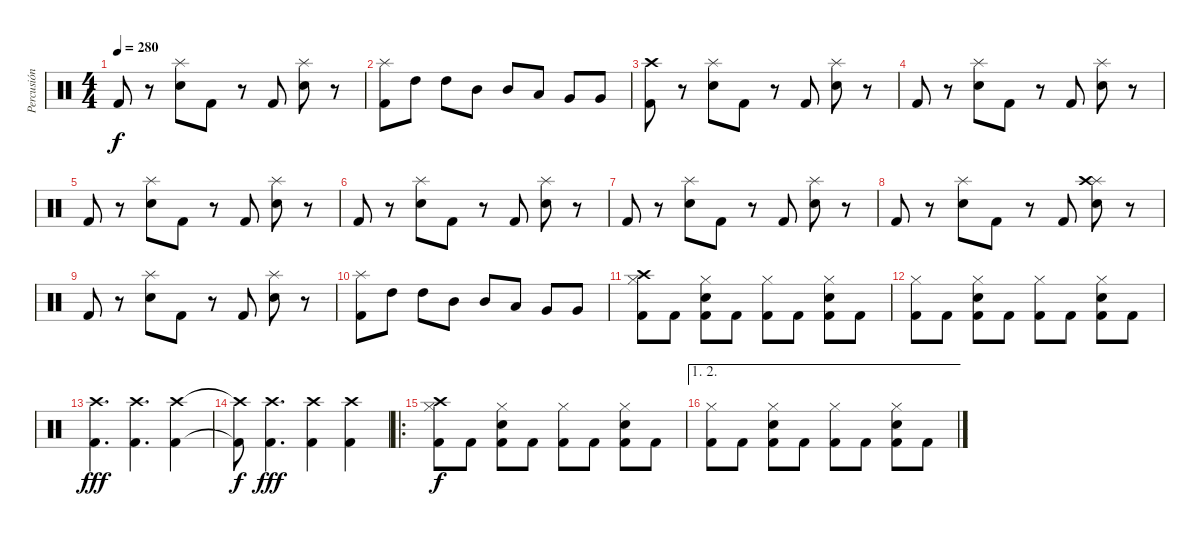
\track ("Percusión" "Percusión") {instrument percussion}
\staff {score}
\articulation defaults
\ts (4 4)
\tempo 280
\clef neutral
\ks c "Kick (hit) 2".8{dy f}
r.8 ("Snare (hit) 2" "Splash (hit)").8 "Kick (hit) 2".8 r.8 "Kick (hit) 2".8 ("Snare (hit) 2" "Splash (hit)").8 r.8 |
("Splash (hit)" "Kick (hit) 2").8 "High Tom (hit)".8 "High Tom (hit)".8 "Mid Tom (hit)".8 "Mid Tom (hit)".8 "Low Tom (hit)".8 "Very Low Tom (hit)".8 "Very Low Tom (hit)".8 |
("Crash high (hit)" "Kick (hit) 2").8 r.8 ("Snare (hit) 2" "Splash (hit)").8 "Kick (hit) 2".8 r.8 "Kick (hit) 2".8 ("Snare (hit) 2" "Splash (hit)").8 r.8 |
"Kick (hit) 2".8 r.8 ("Snare (hit) 2" "Splash (hit)").8 "Kick (hit) 2".8 r.8 "Kick (hit) 2".8 ("Snare (hit) 2" "Splash (hit)").8 r.8 |
"Kick (hit) 2".8 r.8 ("Snare (hit) 2" "Splash (hit)").8 "Kick (hit) 2".8 r.8 "Kick (hit) 2".8 ("Snare (hit) 2" "Splash (hit)").8 r.8 |
"Kick (hit) 2".8 r.8 ("Snare (hit) 2" "Splash (hit)").8 "Kick (hit) 2".8 r.8 "Kick (hit) 2".8 ("Snare (hit) 2" "Splash (hit)").8 r.8 |
"Kick (hit) 2".8 r.8 ("Snare (hit) 2" "Splash (hit)").8 "Kick (hit) 2".8 r.8 "Kick (hit) 2".8 ("Snare (hit) 2" "Splash (hit)").8 r.8 |
"Kick (hit) 2".8 r.8 ("Snare (hit) 2" "Splash (hit)").8 "Kick (hit) 2".8 r.8 "Kick (hit) 2".8 ("Snare (hit) 2" "Splash (hit)" "Crash high (hit)").8 r.8 |
"Kick (hit) 2".8 r.8 ("Snare (hit) 2" "Splash (hit)").8 "Kick (hit) 2".8 r.8 "Kick (hit) 2".8 ("Snare (hit) 2" "Splash (hit)").8 r.8 |
("Splash (hit)" "Kick (hit) 2").8 "High Tom (hit)".8 "High Tom (hit)".8 "Mid Tom (hit)".8 "Mid Tom (hit)".8 "Low Tom (hit)".8 "Very Low Tom (hit)".8 "Very Low Tom (hit)".8 |
("Crash high (hit)" "Hi-Hat (closed)" "Kick (hit) 2").8 "Kick (hit) 2".8 ("Snare (hit) 2" "Hi-Hat (closed)" "Kick (hit) 2").8 "Kick (hit) 2".8 ("Hi-Hat (closed)" "Kick (hit) 2").8 "Kick (hit) 2".8 ("Snare (hit) 2" "Hi-Hat (closed)" "Kick (hit) 2").8 "Kick (hit) 2".8 |
("Hi-Hat (closed)" "Kick (hit) 2").8 "Kick (hit) 2".8 ("Snare (hit) 2" "Hi-Hat (closed)" "Kick (hit) 2").8 "Kick (hit) 2".8 ("Hi-Hat (closed)" "Kick (hit) 2").8 "Kick (hit) 2".8 ("Snare (hit) 2" "Hi-Hat (closed)" "Kick (hit) 2").8 "Kick (hit) 2".8 |
("Crash high (hit)" "Kick (hit) 2").4{d dy fff} ("Crash high (hit)" "Kick (hit) 2").4{d} ("Crash high (hit)" "Kick (hit) 2").4 |
("Crash high (hit)"{t} "Kick (hit) 2"{t}).8{dy f} ("Crash high (hit)" "Kick (hit) 2").4{d dy fff} ("Crash high (hit)" "Kick (hit) 2").4 ("Crash high (hit)" "Kick (hit) 2").4 |
\ro
("Crash high (hit)" "Hi-Hat (closed)" "Kick (hit) 2").8{dy f} "Kick (hit) 2".8 ("Snare (hit) 2" "Hi-Hat (closed)" "Kick (hit) 2").8 "Kick (hit) 2".8 ("Hi-Hat (closed)" "Kick (hit) 2").8 "Kick (hit) 2".8 ("Snare (hit) 2" "Hi-Hat (closed)" "Kick (hit) 2").8 "Kick (hit) 2".8 |
\ae (1 2)
("Hi-Hat (closed)" "Kick (hit) 2").8 "Kick (hit) 2".8 ("Snare (hit) 2" "Hi-Hat (closed)" "Kick (hit) 2").8 "Kick (hit) 2".8 ("Hi-Hat (closed)" "Kick (hit) 2").8 "Kick (hit) 2".8 ("Snare (hit) 2" "Hi-Hat (closed)" "Kick (hit) 2").8 "Kick (hit) 2".8
